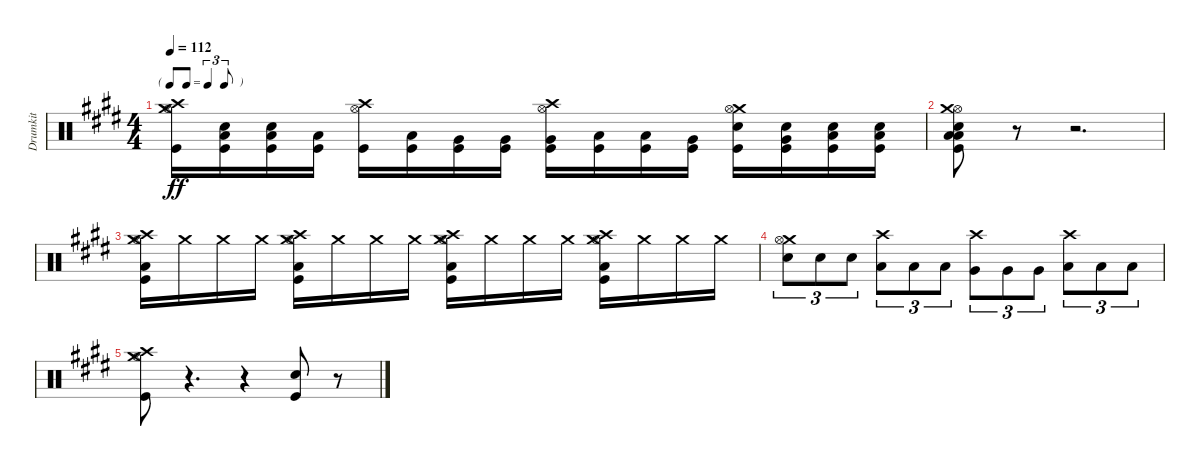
\track ("Drumkit" "Drumkit") {instrument percussion}
\staff {score}
\articulation defaults
\ts (4 4)
\tf triplet8th
\tempo 112
\clef neutral
\ks e
("Crash medium (hit)" "Hi-Hat (open)" "Kick (hit)" "Crash high (hit)").16{dy ff} ("Kick (hit)" "Low Tom (hit)" "Snare (hit) 2").16 ("Kick (hit)" "Low Tom (hit)" "Snare (hit) 2").16 ("Kick (hit)" "Low Tom (hit)").16 ("Crash high (hit)" "Hi-Hat (open)" "Kick (hit)").16 ("Low Tom (hit)" "Kick (hit)").16 ("Kick (hit)" "Very Low Tom (hit)").16 ("Kick (hit)" "Very Low Tom (hit)").16 ("Crash high (hit)" "Hi-Hat (open)" "Kick (hit)" "Very Low Tom (hit)").16 ("Kick (hit)" "Low Floor Tom (hit)").16 ("Kick (hit)" "Low Floor Tom (hit)").16 ("Kick (hit)" "Very Low Tom (hit)").16 ("Kick (hit)" "Crash medium (hit)" "Hi-Hat (open)" "Snare (hit) 2").16 ("Kick (hit)" "Very Low Tom (hit)" "Snare (hit) 2").16 ("Kick (hit)" "Low Tom (hit)" "Snare (hit) 2").16 ("Kick (hit)" "Low Tom (hit)" "Snare (hit) 2").16 |
("Kick (hit)" "Hi-Hat (open)" "Crash medium (hit)" "Low Floor Tom (hit)" "Low Tom (hit)" "Snare (hit) 2").8 r.8 r.2{d} |
("Kick (hit)" "Crash medium (hit)" "Crash high (hit)" "Hi-Hat (open)" "Low Floor Tom (hit)").16 "Crash medium (hit)".16 "Crash medium (hit)".16 "Crash medium (hit)".16 ("Crash medium (hit)" "Crash high (hit)" "Hi-Hat (open)" "Kick (hit)" "Low Floor Tom (hit)").16 "Crash medium (hit)".16 "Crash medium (hit)".16 "Crash medium (hit)".16 ("Crash medium (hit)" "Kick (hit)" "Crash high (hit)" "Hi-Hat (open)" "Low Floor Tom (hit)").16 "Crash medium (hit)".16 "Crash medium (hit)".16 "Crash medium (hit)".16 ("Crash medium (hit)" "Crash high (hit)" "Hi-Hat (open)" "Kick (hit)" "Low Floor Tom (hit)").16 "Crash medium (hit)".16 "Crash medium (hit)".16 "Crash medium (hit)".16 |
("Snare (hit) 2" "Crash medium (hit)" "Hi-Hat (open)").8{tu (3 2)} "Snare (hit) 2".8{tu (3 2)} "Snare (hit) 2".8{tu (3 2)} ("Low Tom (hit)" "Crash high (hit)").8{tu (3 2)} "Low Tom (hit)".8{tu (3 2)} "Low Tom (hit)".8{tu (3 2)} ("Very Low Tom (hit)" "Crash high (hit)").8{tu (3 2)} "Very Low Tom (hit)".8{tu (3 2)} "Very Low Tom (hit)".8{tu (3 2)} ("Low Floor Tom (hit)" "Crash high (hit)").8{tu (3 2)} "Low Floor Tom (hit)".8{tu (3 2)} "Low Floor Tom (hit)".8{tu (3 2)} |
("Kick (hit)" "Hi-Hat (open)" "Crash high (hit)" "Crash medium (hit)").8 r.4{d} r.4 ("Kick (hit)" "Snare (hit) 2").8 r.8
